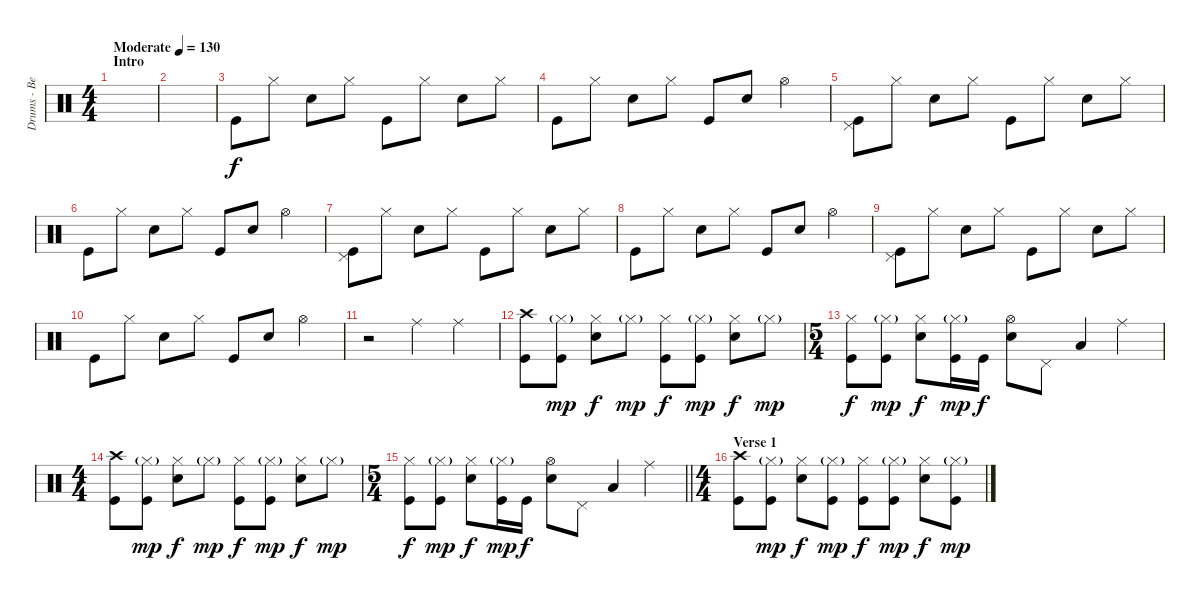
\track ("Drums - Ben Johnston" "Drums - Be") {instrument percussion}
\staff {score}
\articulation defaults
\ts (4 4)
\section ("" "Intro")
\tempo (130 "Moderate")
\clef neutral
\ks c
|
|
"Kick (hit)".8 "Hi-Hat (closed)".8 "Snare (hit) 2".8 "Hi-Hat (closed)".8 "Kick (hit)".8 "Hi-Hat (closed)".8 "Snare (hit) 2".8 "Hi-Hat (closed)".8 |
"Kick (hit)".8 "Hi-Hat (closed)".8 "Snare (hit) 2".8 "Hi-Hat (closed)".8 "Kick (hit)".8 "Snare (hit) 2".8 "Hi-Hat (open)".4 |
("Pedal Hi-Hat (hit)" "Kick (hit)").8 "Hi-Hat (closed)".8 "Snare (hit) 2".8 "Hi-Hat (closed)".8 "Kick (hit)".8 "Hi-Hat (closed)".8 "Snare (hit) 2".8 "Hi-Hat (closed)".8 |
"Kick (hit)".8 "Hi-Hat (closed)".8 "Snare (hit) 2".8 "Hi-Hat (closed)".8 "Kick (hit)".8 "Snare (hit) 2".8 "Hi-Hat (open)".4 |
("Pedal Hi-Hat (hit)" "Kick (hit)").8 "Hi-Hat (closed)".8 "Snare (hit) 2".8 "Hi-Hat (closed)".8 "Kick (hit)".8 "Hi-Hat (closed)".8 "Snare (hit) 2".8 "Hi-Hat (closed)".8 |
"Kick (hit)".8 "Hi-Hat (closed)".8 "Snare (hit) 2".8 "Hi-Hat (closed)".8 "Kick (hit)".8 "Snare (hit) 2".8 "Hi-Hat (open)".4 |
("Pedal Hi-Hat (hit)" "Kick (hit)").8 "Hi-Hat (closed)".8 "Snare (hit) 2".8 "Hi-Hat (closed)".8 "Kick (hit)".8 "Hi-Hat (closed)".8 "Snare (hit) 2".8 "Hi-Hat (closed)".8 |
"Kick (hit)".8 "Hi-Hat (closed)".8 "Snare (hit) 2".8 "Hi-Hat (closed)".8 "Kick (hit)".8 "Snare (hit) 2".8 "Hi-Hat (open)".4 |
r.2 "Ride (middle)".4{volume 13} "Ride (middle)".4 |
("Crash high (hit)" "Kick (hit)").8 ("Hi-Hat (closed)"{g} "Kick (hit)").8{dy mp} ("Hi-Hat (closed)" "Snare (hit) 2").8{dy f} "Hi-Hat (closed)"{g}.8{dy mp} ("Hi-Hat (closed)" "Kick (hit)").8{dy f} ("Hi-Hat (closed)"{g} "Kick (hit)").8{dy mp} ("Hi-Hat (closed)" "Snare (hit) 2").8{dy f} "Hi-Hat (closed)"{g}.8{dy mp} |
\ts (5 4)
("Hi-Hat (closed)" "Kick (hit)").8{dy f} ("Hi-Hat (closed)"{g} "Kick (hit)").8{dy mp} ("Hi-Hat (closed)" "Snare (hit) 2").8{dy f} ("Hi-Hat (closed)"{g} "Kick (hit)").16{dy mp} "Kick (hit)".16{dy f} ("Hi-Hat (open)" "Snare (hit) 2").8 "Pedal Hi-Hat (hit)".8 "Low Tom (hit)".4 "Ride (middle)".4 |
\ts (4 4)
("Crash high (hit)" "Kick (hit)").8 ("Hi-Hat (closed)"{g} "Kick (hit)").8{dy mp} ("Hi-Hat (closed)" "Snare (hit) 2").8{dy f} "Hi-Hat (closed)"{g}.8{dy mp} ("Hi-Hat (closed)" "Kick (hit)").8{dy f} ("Hi-Hat (closed)"{g} "Kick (hit)").8{dy mp} ("Hi-Hat (closed)" "Snare (hit) 2").8{dy f} "Hi-Hat (closed)"{g}.8{dy mp} |
\ts (5 4)
\barLineRight lightlight
("Hi-Hat (closed)" "Kick (hit)").8{dy f} ("Hi-Hat (closed)"{g} "Kick (hit)").8{dy mp} ("Hi-Hat (closed)" "Snare (hit) 2").8{dy f} ("Hi-Hat (closed)"{g} "Kick (hit)").16{dy mp} "Kick (hit)".16{dy f} ("Hi-Hat (open)" "Snare (hit) 2").8 "Pedal Hi-Hat (hit)".8 "Low Tom (hit)".4 "Ride (middle)".4 |
\ts (4 4)
\section ("" "Verse 1")
("Crash high (hit)" "Kick (hit)").8 ("Hi-Hat (closed)"{g} "Kick (hit)").8{dy mp} ("Hi-Hat (closed)" "Snare (hit) 2").8{dy f} ("Hi-Hat (closed)"{g} "Kick (hit)").8{dy mp} ("Hi-Hat (closed)" "Kick (hit)").8{dy f} ("Hi-Hat (closed)"{g} "Kick (hit)").8{dy mp} ("Hi-Hat (closed)" "Snare (hit) 2").8{dy f} ("Hi-Hat (closed)"{g} "Kick (hit)").8{dy mp}
